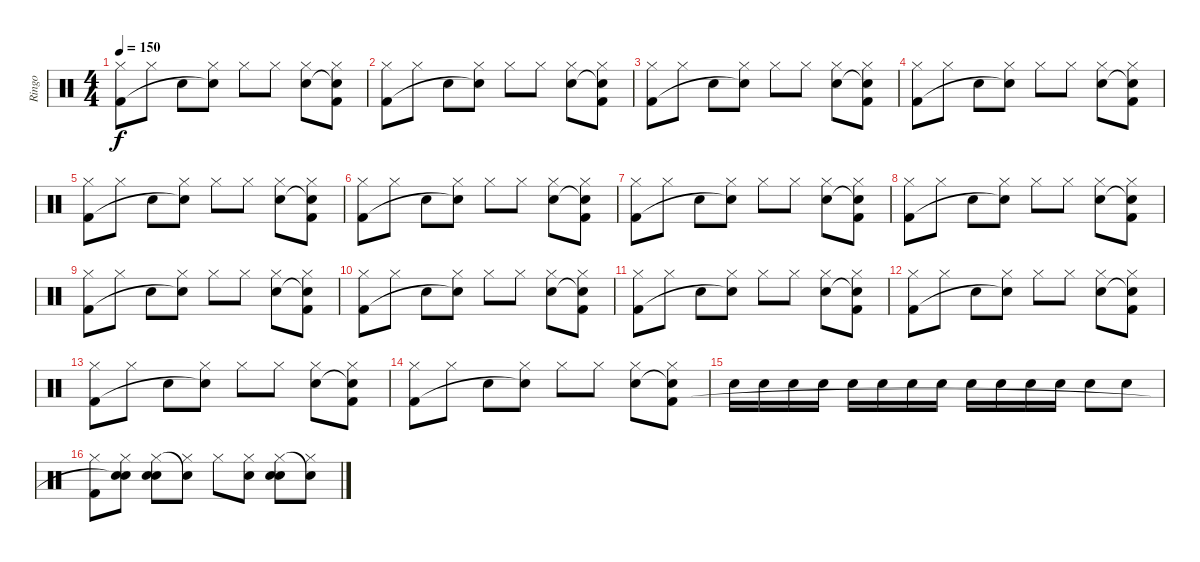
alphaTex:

\track ("Ringo" "Ringo") {instrument percussion}
\staff {score}
\articulation defaults
\ts (4 4)
\tempo 150
\clef neutral
\ks c
("Hi-Hat (closed)" "Kick (hit) 2").8{dy f} "Hi-Hat (closed)".8 "Snare (hit) 2".8 ("Hi-Hat (closed)" "Snare (hit)"{t}).8 "Hi-Hat (closed)".8 "Hi-Hat (closed)".8 ("Hi-Hat (closed)" "Snare (hit) 2").8 ("Hi-Hat (closed)" "Snare (hit)"{t} "Kick (hit) 2").8 |
("Hi-Hat (closed)" "Kick (hit) 2").8 "Hi-Hat (closed)".8 "Snare (hit) 2".8 ("Hi-Hat (closed)" "Snare (hit)"{t}).8 "Hi-Hat (closed)".8 "Hi-Hat (closed)".8 ("Hi-Hat (closed)" "Snare (hit) 2").8 ("Hi-Hat (closed)" "Snare (hit)"{t} "Kick (hit) 2").8 |
("Hi-Hat (closed)" "Kick (hit) 2").8 "Hi-Hat (closed)".8 "Snare (hit) 2".8 ("Hi-Hat (closed)" "Snare (hit)"{t}).8 "Hi-Hat (closed)".8 "Hi-Hat (closed)".8 ("Hi-Hat (closed)" "Snare (hit) 2").8 ("Hi-Hat (closed)" "Snare (hit)"{t} "Kick (hit) 2").8 |
("Hi-Hat (closed)" "Kick (hit) 2").8 "Hi-Hat (closed)".8 "Snare (hit) 2".8 ("Hi-Hat (closed)" "Snare (hit)"{t}).8 "Hi-Hat (closed)".8 "Hi-Hat (closed)".8 ("Hi-Hat (closed)" "Snare (hit) 2").8 ("Hi-Hat (closed)" "Snare (hit)"{t} "Kick (hit) 2").8 |
("Hi-Hat (closed)" "Kick (hit) 2").8 "Hi-Hat (closed)".8 "Snare (hit) 2".8 ("Hi-Hat (closed)" "Snare (hit)"{t}).8 "Hi-Hat (closed)".8 "Hi-Hat (closed)".8 ("Hi-Hat (closed)" "Snare (hit) 2").8 ("Hi-Hat (closed)" "Snare (hit)"{t} "Kick (hit) 2").8 |
("Hi-Hat (closed)" "Kick (hit) 2").8 "Hi-Hat (closed)".8 "Snare (hit) 2".8 ("Hi-Hat (closed)" "Snare (hit)"{t}).8 "Hi-Hat (closed)".8 "Hi-Hat (closed)".8 ("Hi-Hat (closed)" "Snare (hit) 2").8 ("Hi-Hat (closed)" "Snare (hit)"{t} "Kick (hit) 2").8 |
("Hi-Hat (closed)" "Kick (hit) 2").8 "Hi-Hat (closed)".8 "Snare (hit) 2".8 ("Hi-Hat (closed)" "Snare (hit)"{t}).8 "Hi-Hat (closed)".8 "Hi-Hat (closed)".8 ("Hi-Hat (closed)" "Snare (hit) 2").8 ("Hi-Hat (closed)" "Snare (hit)"{t} "Kick (hit) 2").8 |
("Hi-Hat (closed)" "Kick (hit) 2").8 "Hi-Hat (closed)".8 "Snare (hit) 2".8 ("Hi-Hat (closed)" "Snare (hit)"{t}).8 "Hi-Hat (closed)".8 "Hi-Hat (closed)".8 ("Hi-Hat (closed)" "Snare (hit) 2").8 ("Hi-Hat (closed)" "Snare (hit)"{t} "Kick (hit) 2").8 |
("Hi-Hat (closed)" "Kick (hit) 2").8 "Hi-Hat (closed)".8 "Snare (hit) 2".8 ("Hi-Hat (closed)" "Snare (hit)"{t}).8 "Hi-Hat (closed)".8 "Hi-Hat (closed)".8 ("Hi-Hat (closed)" "Snare (hit) 2").8 ("Hi-Hat (closed)" "Snare (hit)"{t} "Kick (hit) 2").8 |
("Hi-Hat (closed)" "Kick (hit) 2").8 "Hi-Hat (closed)".8 "Snare (hit) 2".8 ("Hi-Hat (closed)" "Snare (hit)"{t}).8 "Hi-Hat (closed)".8 "Hi-Hat (closed)".8 ("Hi-Hat (closed)" "Snare (hit) 2").8 ("Hi-Hat (closed)" "Snare (hit)"{t} "Kick (hit) 2").8 |
("Hi-Hat (closed)" "Kick (hit) 2").8 "Hi-Hat (closed)".8 "Snare (hit) 2".8 ("Hi-Hat (closed)" "Snare (hit)"{t}).8 "Hi-Hat (closed)".8 "Hi-Hat (closed)".8 ("Hi-Hat (closed)" "Snare (hit) 2").8 ("Hi-Hat (closed)" "Snare (hit)"{t} "Kick (hit) 2").8 |
("Hi-Hat (closed)" "Kick (hit) 2").8 "Hi-Hat (closed)".8 "Snare (hit) 2".8 ("Hi-Hat (closed)" "Snare (hit)"{t}).8 "Hi-Hat (closed)".8 "Hi-Hat (closed)".8 ("Hi-Hat (closed)" "Snare (hit) 2").8 ("Hi-Hat (closed)" "Snare (hit)"{t} "Kick (hit) 2").8 |
("Hi-Hat (closed)" "Kick (hit) 2").8 "Hi-Hat (closed)".8 "Snare (hit) 2".8 ("Hi-Hat (closed)" "Snare (hit)"{t}).8 "Hi-Hat (closed)".8 "Hi-Hat (closed)".8 ("Hi-Hat (closed)" "Snare (hit) 2").8 ("Hi-Hat (closed)" "Snare (hit)"{t} "Kick (hit) 2").8 |
("Hi-Hat (closed)" "Kick (hit) 2").8 "Hi-Hat (closed)".8 "Snare (hit) 2".8 ("Hi-Hat (closed)" "Snare (hit)"{t}).8 "Hi-Hat (closed)".8 "Hi-Hat (closed)".8 ("Hi-Hat (closed)" "Snare (hit) 2").8 ("Hi-Hat (closed)" "Snare (hit)"{t} "Kick (hit) 2").8 |
"Snare (hit) 2".16 "Snare (hit) 2".16 "Snare (hit) 2".16 "Snare (hit) 2".16 "Snare (hit) 2".16 "Snare (hit) 2".16 "Snare (hit) 2".16 "Snare (hit) 2".16 "Snare (hit) 2".16 "Snare (hit) 2".16 "Snare (hit) 2".16 "Snare (hit) 2".16 "Snare (hit) 2".8 "Snare (hit) 2".8 |
("Hi-Hat (closed)" "Kick (hit) 2").8 ("Hand Clap (hit)" "Hi-Hat (closed)" "Snare (hit)"{t}).8 ("Hand Clap (hit)" "Hi-Hat (closed)" "Snare (hit) 2").8 ("Hi-Hat (closed)" "Snare (hit)"{t}).8 "Hi-Hat (closed)".8 ("Hand Clap (hit)" "Hi-Hat (closed)").8 ("Hand Clap (hit)" "Hi-Hat (closed)" "Snare (hit) 2").8 ("Hi-Hat (closed)" "Snare (hit)"{t}).8
